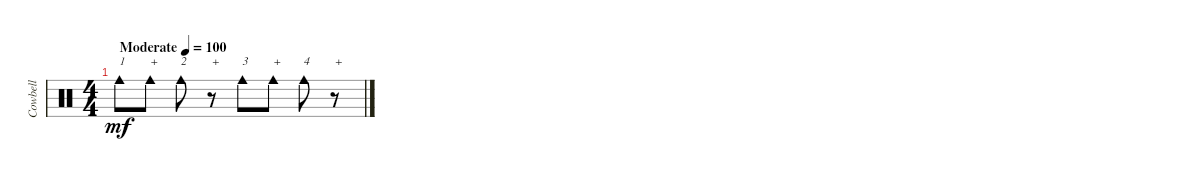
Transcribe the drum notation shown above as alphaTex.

\track ("Cowbell" "Cowbell") {instrument percussion}
\staff {score}
\articulation defaults
\ts (4 4)
\tempo (100 "Moderate")
\clef neutral
\ks c "Cowbell medium (hit)".8{txt "1" dy mf} "Cowbell medium (hit)".8{txt "+"} "Cowbell medium (hit)".8{txt "2"}
r.8{txt "+"} "Cowbell medium (hit)".8{txt "3"} "Cowbell medium (hit)".8{txt "+"} "Cowbell medium (hit)".8{txt "4"} r.8{txt "+"}
